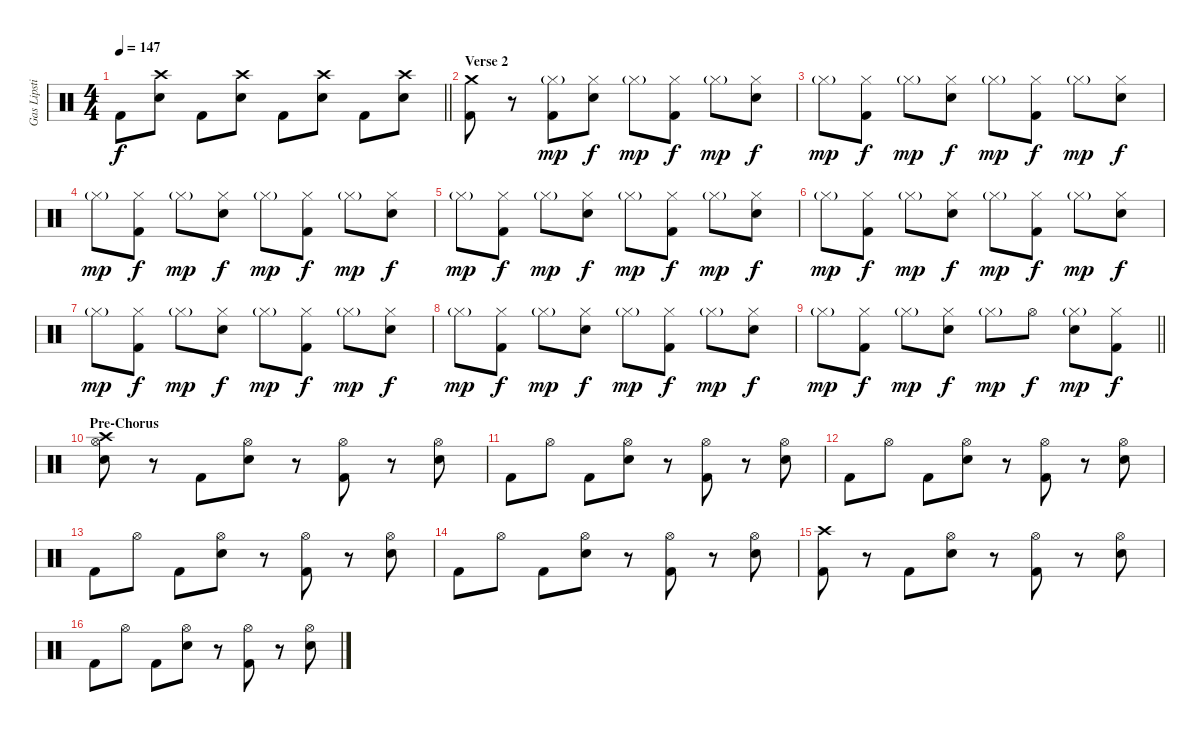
\track ("Gas Lipstick (Drums)" "Gas Lipsti") {instrument percussion}
\staff {score}
\articulation defaults
\ts (4 4)
\tempo 147
\clef neutral
\barLineRight lightlight
\ks c "Kick (hit) 2".8{dy f}
("Crash high (hit)" "Snare (hit) 2").8 "Kick (hit) 2".8 ("Crash high (hit)" "Snare (hit) 2").8 "Kick (hit) 2".8 ("Crash high (hit)" "Snare (hit) 2").8 "Kick (hit) 2".8 ("Crash high (hit)" "Snare (hit) 2").8 |
\section ("" "Verse 2")
("Crash medium (hit)" "Kick (hit) 2").8 r.8 ("Hi-Hat (closed)"{g} "Kick (hit) 2").8{dy mp} ("Hi-Hat (closed)" "Snare (hit) 2").8{dy f} "Hi-Hat (closed)"{g}.8{dy mp} ("Hi-Hat (closed)" "Kick (hit) 2").8{dy f} "Hi-Hat (closed)"{g}.8{dy mp} ("Hi-Hat (closed)" "Snare (hit) 2").8{dy f} |
"Hi-Hat (closed)"{g}.8{dy mp} ("Hi-Hat (closed)" "Kick (hit) 2").8{dy f} "Hi-Hat (closed)"{g}.8{dy mp} ("Hi-Hat (closed)" "Snare (hit) 2").8{dy f} "Hi-Hat (closed)"{g}.8{dy mp} ("Hi-Hat (closed)" "Kick (hit) 2").8{dy f} "Hi-Hat (closed)"{g}.8{dy mp} ("Hi-Hat (closed)" "Snare (hit) 2").8{dy f} |
"Hi-Hat (closed)"{g}.8{dy mp} ("Hi-Hat (closed)" "Kick (hit) 2").8{dy f} "Hi-Hat (closed)"{g}.8{dy mp} ("Hi-Hat (closed)" "Snare (hit) 2").8{dy f} "Hi-Hat (closed)"{g}.8{dy mp} ("Hi-Hat (closed)" "Kick (hit) 2").8{dy f} "Hi-Hat (closed)"{g}.8{dy mp} ("Hi-Hat (closed)" "Snare (hit) 2").8{dy f} |
"Hi-Hat (closed)"{g}.8{dy mp} ("Hi-Hat (closed)" "Kick (hit) 2").8{dy f} "Hi-Hat (closed)"{g}.8{dy mp} ("Hi-Hat (closed)" "Snare (hit) 2").8{dy f} "Hi-Hat (closed)"{g}.8{dy mp} ("Hi-Hat (closed)" "Kick (hit) 2").8{dy f} "Hi-Hat (closed)"{g}.8{dy mp} ("Hi-Hat (closed)" "Snare (hit) 2").8{dy f} |
"Hi-Hat (closed)"{g}.8{dy mp} ("Hi-Hat (closed)" "Kick (hit) 2").8{dy f} "Hi-Hat (closed)"{g}.8{dy mp} ("Hi-Hat (closed)" "Snare (hit) 2").8{dy f} "Hi-Hat (closed)"{g}.8{dy mp} ("Hi-Hat (closed)" "Kick (hit) 2").8{dy f} "Hi-Hat (closed)"{g}.8{dy mp} ("Hi-Hat (closed)" "Snare (hit) 2").8{dy f} |
"Hi-Hat (closed)"{g}.8{dy mp} ("Hi-Hat (closed)" "Kick (hit) 2").8{dy f} "Hi-Hat (closed)"{g}.8{dy mp} ("Hi-Hat (closed)" "Snare (hit) 2").8{dy f} "Hi-Hat (closed)"{g}.8{dy mp} ("Hi-Hat (closed)" "Kick (hit) 2").8{dy f} "Hi-Hat (closed)"{g}.8{dy mp} ("Hi-Hat (closed)" "Snare (hit) 2").8{dy f} |
"Hi-Hat (closed)"{g}.8{dy mp} ("Hi-Hat (closed)" "Kick (hit) 2").8{dy f} "Hi-Hat (closed)"{g}.8{dy mp} ("Hi-Hat (closed)" "Snare (hit) 2").8{dy f} "Hi-Hat (closed)"{g}.8{dy mp} ("Hi-Hat (closed)" "Kick (hit) 2").8{dy f} "Hi-Hat (closed)"{g}.8{dy mp} ("Hi-Hat (closed)" "Snare (hit) 2").8{dy f} |
\barLineRight lightlight "Hi-Hat (closed)"{g}.8{dy mp}
("Hi-Hat (closed)" "Kick (hit) 2").8{dy f} "Hi-Hat (closed)"{g}.8{dy mp} ("Hi-Hat (closed)" "Snare (hit) 2").8{dy f} "Hi-Hat (closed)"{g}.8{dy mp} "Hi-Hat (open)".8{dy f} ("Hi-Hat (closed)"{g} "Snare (hit) 2").8{dy mp} ("Hi-Hat (closed)" "Kick (hit) 2").8{dy f} |
\section ("" "Pre-Chorus")
("Crash high (hit)" "Hi-Hat (open)" "Snare (hit) 2").8 r.8 "Kick (hit) 2".8 ("Hi-Hat (open)" "Snare (hit) 2").8 r.8 ("Hi-Hat (open)" "Kick (hit) 2").8 r.8 ("Hi-Hat (open)" "Snare (hit) 2").8 |
"Kick (hit) 2".8 "Hi-Hat (open)".8 "Kick (hit) 2".8 ("Hi-Hat (open)" "Snare (hit) 2").8 r.8 ("Hi-Hat (open)" "Kick (hit) 2").8 r.8 ("Hi-Hat (open)" "Snare (hit) 2").8 |
"Kick (hit) 2".8 "Hi-Hat (open)".8 "Kick (hit) 2".8 ("Hi-Hat (open)" "Snare (hit) 2").8 r.8 ("Hi-Hat (open)" "Kick (hit) 2").8 r.8 ("Hi-Hat (open)" "Snare (hit) 2").8 |
"Kick (hit) 2".8 "Hi-Hat (open)".8 "Kick (hit) 2".8 ("Hi-Hat (open)" "Snare (hit) 2").8 r.8 ("Hi-Hat (open)" "Kick (hit) 2").8 r.8 ("Hi-Hat (open)" "Snare (hit) 2").8 |
"Kick (hit) 2".8 "Hi-Hat (open)".8 "Kick (hit) 2".8 ("Hi-Hat (open)" "Snare (hit) 2").8 r.8 ("Hi-Hat (open)" "Kick (hit) 2").8 r.8 ("Hi-Hat (open)" "Snare (hit) 2").8 |
("Crash high (hit)" "Kick (hit) 2").8 r.8 "Kick (hit) 2".8 ("Hi-Hat (open)" "Snare (hit) 2").8 r.8 ("Hi-Hat (open)" "Kick (hit) 2").8 r.8 ("Hi-Hat (open)" "Snare (hit) 2").8 |
"Kick (hit) 2".8 "Hi-Hat (open)".8 "Kick (hit) 2".8 ("Hi-Hat (open)" "Snare (hit) 2").8 r.8 ("Hi-Hat (open)" "Kick (hit) 2").8 r.8 ("Hi-Hat (open)" "Snare (hit) 2").8
